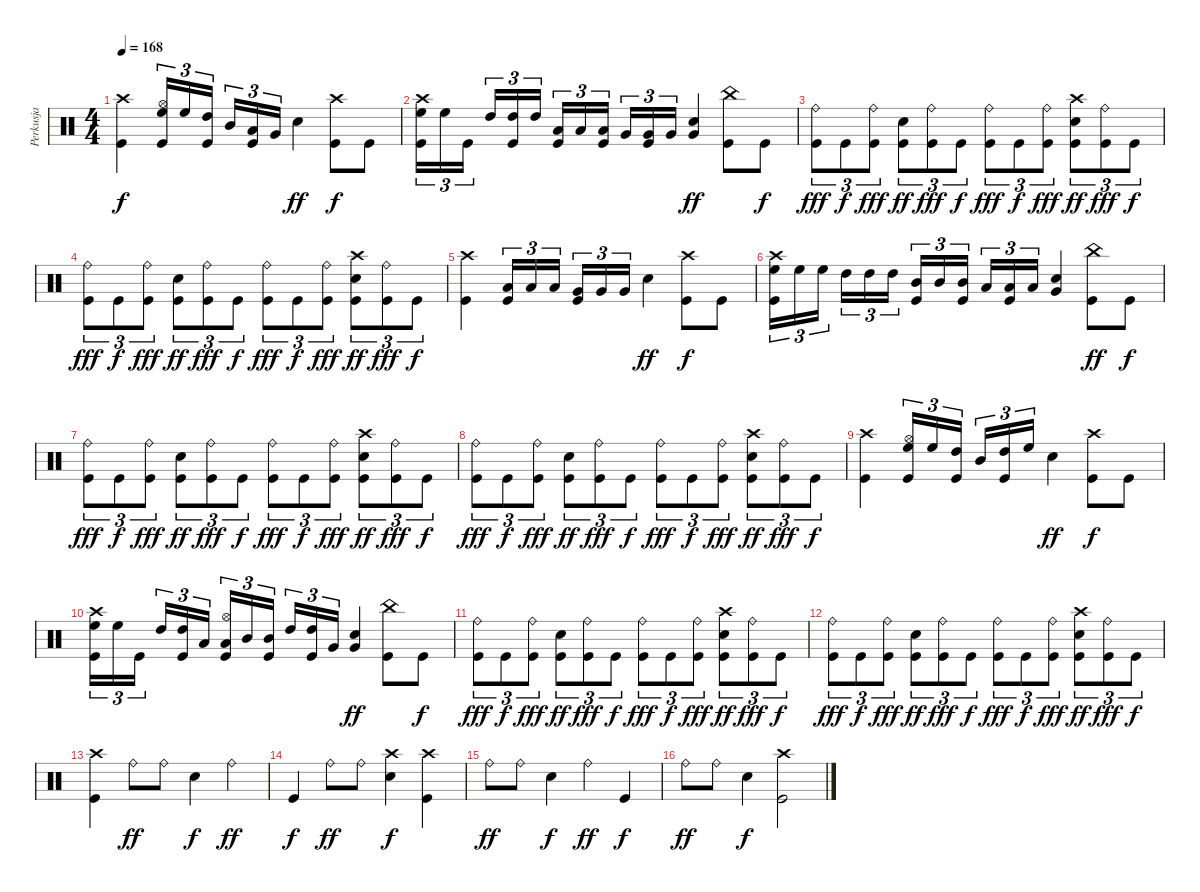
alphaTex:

\track ("Perkusja" "Perkusja") {instrument percussion}
\staff {score}
\articulation defaults
\ts (4 4)
\tempo 168
\clef neutral
\ks c
("Crash high (hit)" "Kick (hit)").4{dy f} ("Hi-Hat (open)" "High Floor Tom (hit)" "Kick (hit)").16{tu (3 2)} "High Floor Tom (hit)".16{tu (3 2)} ("High Tom (hit)" "Kick (hit)").16{tu (3 2)} "Mid Tom (hit)".16{tu (3 2)} ("Low Tom (hit)" "Kick (hit)").16{tu (3 2)} "Very Low Tom (hit)".16{tu (3 2)} "Snare (hit) 2".4{dy ff} ("Crash high (hit)" "Kick (hit)").8{dy f} "Kick (hit)".8 |
("Crash high (hit)" "High Floor Tom (hit)" "Kick (hit)").16{tu (3 2)} "High Floor Tom (hit)".16{tu (3 2)} "Kick (hit)".16{tu (3 2)} "High Tom (hit)".16{tu (3 2)} ("High Tom (hit)" "Kick (hit)").16{tu (3 2)} "High Tom (hit)".16{tu (3 2)} ("Low Tom (hit)" "Kick (hit)").16{tu (3 2)} "Low Tom (hit)".16{tu (3 2)} ("Low Tom (hit)" "Kick (hit)").16{tu (3 2)} "Very Low Tom (hit)".16{tu (3 2)} ("Very Low Tom (hit)" "Kick (hit)").16{tu (3 2)} "Very Low Tom (hit)".16{tu (3 2)} ("Very Low Tom (hit)" "Snare (hit) 2").4{dy ff} ("China (hit)" "Kick (hit)").8 "Kick (hit)".8{dy f} |
("Ride (bell)" "Kick (hit)").8{tu (3 2) dy fff} "Kick (hit)".8{tu (3 2) dy f} ("Ride (bell)" "Kick (hit)").8{tu (3 2) dy fff} ("Snare (hit) 2" "Kick (hit)").8{tu (3 2) dy ff} ("Ride (bell)" "Kick (hit)").8{tu (3 2) dy fff} "Kick (hit)".8{tu (3 2) dy f} ("Ride (bell)" "Kick (hit)").8{tu (3 2) dy fff} "Kick (hit)".8{tu (3 2) dy f} ("Ride (bell)" "Kick (hit)").8{tu (3 2) dy fff} ("Crash high (hit)" "Snare (hit) 2" "Kick (hit)").8{tu (3 2) dy ff} ("Ride (bell)" "Kick (hit)").8{tu (3 2) dy fff} "Kick (hit)".8{tu (3 2) dy f} |
("Ride (bell)" "Kick (hit)").8{tu (3 2) dy fff} "Kick (hit)".8{tu (3 2) dy f} ("Ride (bell)" "Kick (hit)").8{tu (3 2) dy fff} ("Snare (hit) 2" "Kick (hit)").8{tu (3 2) dy ff} ("Ride (bell)" "Kick (hit)").8{tu (3 2) dy fff} "Kick (hit)".8{tu (3 2) dy f} ("Ride (bell)" "Kick (hit)").8{tu (3 2) dy fff} "Kick (hit)".8{tu (3 2) dy f} ("Ride (bell)" "Kick (hit)").8{tu (3 2) dy fff} ("Crash high (hit)" "Snare (hit) 2" "Kick (hit)").8{tu (3 2) dy ff} ("Ride (bell)" "Kick (hit)").8{tu (3 2) dy fff} "Kick (hit)".8{tu (3 2) dy f} |
("Crash high (hit)" "Kick (hit)").4 ("Low Tom (hit)" "Kick (hit)").16{tu (3 2)} "Low Tom (hit)".16{tu (3 2)} "Low Tom (hit)".16{tu (3 2)} ("Very Low Tom (hit)" "Kick (hit)").16{tu (3 2)} "Very Low Tom (hit)".16{tu (3 2)} "Very Low Tom (hit)".16{tu (3 2)} "Snare (hit) 2".4{dy ff} ("Crash high (hit)" "Kick (hit)").8{dy f} "Kick (hit)".8 |
("Crash high (hit)" "High Floor Tom (hit)" "Kick (hit)").16{tu (3 2)} "High Floor Tom (hit)".16{tu (3 2)} "High Floor Tom (hit)".16{tu (3 2)} "High Tom (hit)".16{tu (3 2)} "High Tom (hit)".16{tu (3 2)} "High Tom (hit)".16{tu (3 2)} ("Mid Tom (hit)" "Kick (hit)").16{tu (3 2)} "Mid Tom (hit)".16{tu (3 2)} ("Mid Tom (hit)" "Kick (hit)").16{tu (3 2)} "Low Tom (hit)".16{tu (3 2)} ("Low Tom (hit)" "Kick (hit)").16{tu (3 2)} "Low Tom (hit)".16{tu (3 2)} ("Very Low Tom (hit)" "Snare (hit) 2").4 ("China (hit)" "Kick (hit)").8{dy ff} "Kick (hit)".8{dy f} |
("Ride (bell)" "Kick (hit)").8{tu (3 2) dy fff} "Kick (hit)".8{tu (3 2) dy f} ("Ride (bell)" "Kick (hit)").8{tu (3 2) dy fff} ("Snare (hit) 2" "Kick (hit)").8{tu (3 2) dy ff} ("Ride (bell)" "Kick (hit)").8{tu (3 2) dy fff} "Kick (hit)".8{tu (3 2) dy f} ("Ride (bell)" "Kick (hit)").8{tu (3 2) dy fff} "Kick (hit)".8{tu (3 2) dy f} ("Ride (bell)" "Kick (hit)").8{tu (3 2) dy fff} ("Crash high (hit)" "Snare (hit) 2" "Kick (hit)").8{tu (3 2) dy ff} ("Ride (bell)" "Kick (hit)").8{tu (3 2) dy fff} "Kick (hit)".8{tu (3 2) dy f} |
("Ride (bell)" "Kick (hit)").8{tu (3 2) dy fff} "Kick (hit)".8{tu (3 2) dy f} ("Ride (bell)" "Kick (hit)").8{tu (3 2) dy fff} ("Snare (hit) 2" "Kick (hit)").8{tu (3 2) dy ff} ("Ride (bell)" "Kick (hit)").8{tu (3 2) dy fff} "Kick (hit)".8{tu (3 2) dy f} ("Ride (bell)" "Kick (hit)").8{tu (3 2) dy fff} "Kick (hit)".8{tu (3 2) dy f} ("Ride (bell)" "Kick (hit)").8{tu (3 2) dy fff} ("Crash high (hit)" "Snare (hit) 2" "Kick (hit)").8{tu (3 2) dy ff} ("Ride (bell)" "Kick (hit)").8{tu (3 2) dy fff} "Kick (hit)".8{tu (3 2) dy f} |
("Crash high (hit)" "Kick (hit)").4 ("Hi-Hat (open)" "High Floor Tom (hit)" "Kick (hit)").16{tu (3 2)} "High Floor Tom (hit)".16{tu (3 2)} ("High Tom (hit)" "Kick (hit)").16{tu (3 2)} "Mid Tom (hit)".16{tu (3 2)} ("High Tom (hit)" "Kick (hit)").16{tu (3 2)} "High Floor Tom (hit)".16{tu (3 2)} "Snare (hit) 2".4{dy ff} ("Crash high (hit)" "Kick (hit)").8{dy f} "Kick (hit)".8 |
("Crash high (hit)" "High Floor Tom (hit)" "Kick (hit)").16{tu (3 2)} "High Floor Tom (hit)".16{tu (3 2)} "Kick (hit)".16{tu (3 2)} "High Tom (hit)".16{tu (3 2)} ("High Tom (hit)" "Kick (hit)").16{tu (3 2)} "Low Tom (hit)".16{tu (3 2)} ("Hi-Hat (open)" "Low Tom (hit)" "Kick (hit)").16{tu (3 2)} "Mid Tom (hit)".16{tu (3 2)} ("Mid Tom (hit)" "Kick (hit)").16{tu (3 2)} "High Tom (hit)".16{tu (3 2)} ("High Tom (hit)" "Kick (hit)").16{tu (3 2)} "Very Low Tom (hit)".16{tu (3 2)} ("Very Low Tom (hit)" "Snare (hit) 2").4{dy ff} ("China (hit)" "Kick (hit)").8 "Kick (hit)".8{dy f} |
("Ride (bell)" "Kick (hit)").8{tu (3 2) dy fff} "Kick (hit)".8{tu (3 2) dy f} ("Ride (bell)" "Kick (hit)").8{tu (3 2) dy fff} ("Snare (hit) 2" "Kick (hit)").8{tu (3 2) dy ff} ("Ride (bell)" "Kick (hit)").8{tu (3 2) dy fff} "Kick (hit)".8{tu (3 2) dy f} ("Ride (bell)" "Kick (hit)").8{tu (3 2) dy fff} "Kick (hit)".8{tu (3 2) dy f} ("Ride (bell)" "Kick (hit)").8{tu (3 2) dy fff} ("Crash high (hit)" "Snare (hit) 2" "Kick (hit)").8{tu (3 2) dy ff} ("Ride (bell)" "Kick (hit)").8{tu (3 2) dy fff} "Kick (hit)".8{tu (3 2) dy f} |
("Ride (bell)" "Kick (hit)").8{tu (3 2) dy fff} "Kick (hit)".8{tu (3 2) dy f} ("Ride (bell)" "Kick (hit)").8{tu (3 2) dy fff} ("Snare (hit) 2" "Kick (hit)").8{tu (3 2) dy ff} ("Ride (bell)" "Kick (hit)").8{tu (3 2) dy fff} "Kick (hit)".8{tu (3 2) dy f} ("Ride (bell)" "Kick (hit)").8{tu (3 2) dy fff} "Kick (hit)".8{tu (3 2) dy f} ("Ride (bell)" "Kick (hit)").8{tu (3 2) dy fff} ("Crash high (hit)" "Snare (hit) 2" "Kick (hit)").8{tu (3 2) dy ff} ("Ride (bell)" "Kick (hit)").8{tu (3 2) dy fff} "Kick (hit)".8{tu (3 2) dy f} |
("Crash high (hit)" "Kick (hit)").4 "Ride (bell)".8{dy ff} "Ride (bell)".8 "Snare (hit) 2".4{dy f} "Ride (bell)".4{dy ff} |
"Kick (hit)".4{dy f} "Ride (bell)".8{dy ff} "Ride (bell)".8 ("Crash high (hit)" "Snare (hit) 2").4{dy f} ("Crash high (hit)" "Kick (hit)").4 |
"Ride (bell)".8{dy ff} "Ride (bell)".8 "Snare (hit) 2".4{dy f} "Ride (bell)".4{dy ff} "Kick (hit)".4{dy f} |
"Ride (bell)".8{dy ff} "Ride (bell)".8 "Snare (hit) 2".4{dy f} ("Crash high (hit)" "Kick (hit)").2
